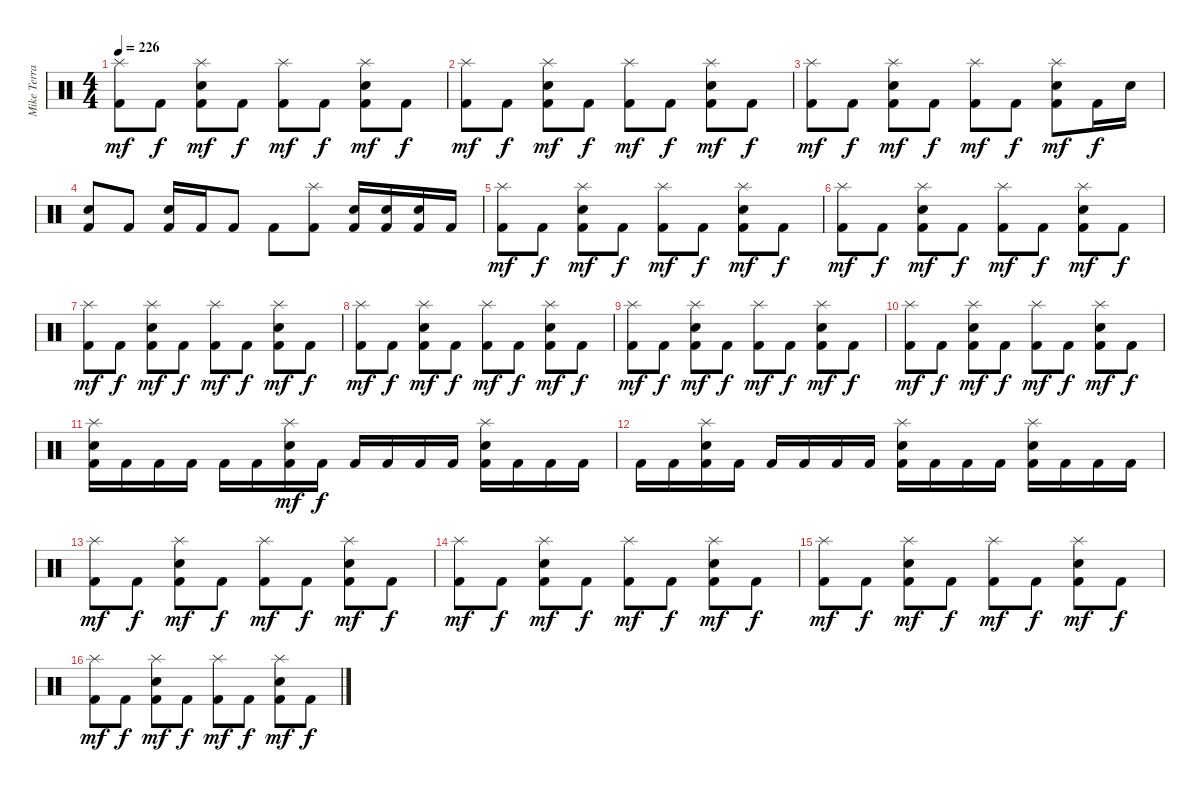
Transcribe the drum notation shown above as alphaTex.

\track ("Mike Terrana" "Mike Terra") {instrument percussion}
\staff {score}
\articulation defaults
\ts (4 4)
\tempo 226
\clef neutral
\ks c
("Splash (hit)" "Kick (hit) 2").8{dy mf} "Kick (hit) 2".8{dy f} ("Splash (hit)" "Snare (hit) 2" "Kick (hit) 2").8{dy mf} "Kick (hit) 2".8{dy f} ("Splash (hit)" "Kick (hit) 2").8{dy mf} "Kick (hit) 2".8{dy f} ("Splash (hit)" "Snare (hit) 2" "Kick (hit) 2").8{dy mf} "Kick (hit) 2".8{dy f} |
("Splash (hit)" "Kick (hit) 2").8{dy mf} "Kick (hit) 2".8{dy f} ("Splash (hit)" "Snare (hit) 2" "Kick (hit) 2").8{dy mf} "Kick (hit) 2".8{dy f} ("Splash (hit)" "Kick (hit) 2").8{dy mf} "Kick (hit) 2".8{dy f} ("Splash (hit)" "Snare (hit) 2" "Kick (hit) 2").8{dy mf} "Kick (hit) 2".8{dy f} |
("Splash (hit)" "Kick (hit) 2").8{dy mf} "Kick (hit) 2".8{dy f} ("Splash (hit)" "Snare (hit) 2" "Kick (hit) 2").8{dy mf} "Kick (hit) 2".8{dy f} ("Splash (hit)" "Kick (hit) 2").8{dy mf} "Kick (hit) 2".8{dy f} ("Splash (hit)" "Snare (hit) 2" "Kick (hit) 2").8{dy mf} "Kick (hit) 2".16{dy f} "Snare (hit) 2".16 |
("Snare (hit) 2" "Kick (hit) 2").8 "Kick (hit) 2".8 ("Snare (hit) 2" "Kick (hit) 2").16 "Kick (hit) 2".16 "Kick (hit) 2".8 "Kick (hit) 2".8 ("Splash (hit)" "Kick (hit) 2").8 ("Snare (hit) 2" "Kick (hit) 2").16 ("Snare (hit) 2" "Kick (hit) 2").16 ("Snare (hit) 2" "Kick (hit) 2").16 "Kick (hit) 2".16 |
("Splash (hit)" "Kick (hit) 2").8{dy mf} "Kick (hit) 2".8{dy f} ("Splash (hit)" "Snare (hit) 2" "Kick (hit) 2").8{dy mf} "Kick (hit) 2".8{dy f} ("Splash (hit)" "Kick (hit) 2").8{dy mf} "Kick (hit) 2".8{dy f} ("Splash (hit)" "Snare (hit) 2" "Kick (hit) 2").8{dy mf} "Kick (hit) 2".8{dy f} |
("Splash (hit)" "Kick (hit) 2").8{dy mf} "Kick (hit) 2".8{dy f} ("Splash (hit)" "Snare (hit) 2" "Kick (hit) 2").8{dy mf} "Kick (hit) 2".8{dy f} ("Splash (hit)" "Kick (hit) 2").8{dy mf} "Kick (hit) 2".8{dy f} ("Splash (hit)" "Snare (hit) 2" "Kick (hit) 2").8{dy mf} "Kick (hit) 2".8{dy f} |
("Splash (hit)" "Kick (hit) 2").8{dy mf} "Kick (hit) 2".8{dy f} ("Splash (hit)" "Snare (hit) 2" "Kick (hit) 2").8{dy mf} "Kick (hit) 2".8{dy f} ("Splash (hit)" "Kick (hit) 2").8{dy mf} "Kick (hit) 2".8{dy f} ("Splash (hit)" "Snare (hit) 2" "Kick (hit) 2").8{dy mf} "Kick (hit) 2".8{dy f} |
("Splash (hit)" "Kick (hit) 2").8{dy mf} "Kick (hit) 2".8{dy f} ("Splash (hit)" "Snare (hit) 2" "Kick (hit) 2").8{dy mf} "Kick (hit) 2".8{dy f} ("Splash (hit)" "Kick (hit) 2").8{dy mf} "Kick (hit) 2".8{dy f} ("Splash (hit)" "Snare (hit) 2" "Kick (hit) 2").8{dy mf} "Kick (hit) 2".8{dy f} |
("Splash (hit)" "Kick (hit) 2").8{dy mf} "Kick (hit) 2".8{dy f} ("Splash (hit)" "Snare (hit) 2" "Kick (hit) 2").8{dy mf} "Kick (hit) 2".8{dy f} ("Splash (hit)" "Kick (hit) 2").8{dy mf} "Kick (hit) 2".8{dy f} ("Splash (hit)" "Snare (hit) 2" "Kick (hit) 2").8{dy mf} "Kick (hit) 2".8{dy f} |
("Splash (hit)" "Kick (hit) 2").8{dy mf} "Kick (hit) 2".8{dy f} ("Splash (hit)" "Snare (hit) 2" "Kick (hit) 2").8{dy mf} "Kick (hit) 2".8{dy f} ("Splash (hit)" "Kick (hit) 2").8{dy mf} "Kick (hit) 2".8{dy f} ("Splash (hit)" "Snare (hit) 2" "Kick (hit) 2").8{dy mf} "Kick (hit) 2".8{dy f} |
("Splash (hit)" "Snare (hit) 2" "Kick (hit) 2").16 "Kick (hit) 2".16 "Kick (hit) 2".16 "Kick (hit) 2".16 "Kick (hit) 2".16 "Kick (hit) 2".16 ("Splash (hit)" "Snare (hit) 2" "Kick (hit) 2").16{dy mf} "Kick (hit) 2".16{dy f} "Kick (hit) 2".16 "Kick (hit) 2".16 "Kick (hit) 2".16 "Kick (hit) 2".16 ("Splash (hit)" "Snare (hit) 2" "Kick (hit) 2").16 "Kick (hit) 2".16 "Kick (hit) 2".16 "Kick (hit) 2".16 |
"Kick (hit) 2".16 "Kick (hit) 2".16 ("Splash (hit)" "Snare (hit) 2" "Kick (hit) 2").16 "Kick (hit) 2".16 "Kick (hit) 2".16 "Kick (hit) 2".16 "Kick (hit) 2".16 "Kick (hit) 2".16 ("Splash (hit)" "Snare (hit) 2" "Kick (hit) 2").16 "Kick (hit) 2".16 "Kick (hit) 2".16 "Kick (hit) 2".16 ("Splash (hit)" "Snare (hit) 2" "Kick (hit) 2").16 "Kick (hit) 2".16 "Kick (hit) 2".16 "Kick (hit) 2".16 |
("Splash (hit)" "Kick (hit) 2").8{dy mf} "Kick (hit) 2".8{dy f} ("Splash (hit)" "Snare (hit) 2" "Kick (hit) 2").8{dy mf} "Kick (hit) 2".8{dy f} ("Splash (hit)" "Kick (hit) 2").8{dy mf} "Kick (hit) 2".8{dy f} ("Splash (hit)" "Snare (hit) 2" "Kick (hit) 2").8{dy mf} "Kick (hit) 2".8{dy f} |
("Splash (hit)" "Kick (hit) 2").8{dy mf} "Kick (hit) 2".8{dy f} ("Splash (hit)" "Snare (hit) 2" "Kick (hit) 2").8{dy mf} "Kick (hit) 2".8{dy f} ("Splash (hit)" "Kick (hit) 2").8{dy mf} "Kick (hit) 2".8{dy f} ("Splash (hit)" "Snare (hit) 2" "Kick (hit) 2").8{dy mf} "Kick (hit) 2".8{dy f} |
("Splash (hit)" "Kick (hit) 2").8{dy mf} "Kick (hit) 2".8{dy f} ("Splash (hit)" "Snare (hit) 2" "Kick (hit) 2").8{dy mf} "Kick (hit) 2".8{dy f} ("Splash (hit)" "Kick (hit) 2").8{dy mf} "Kick (hit) 2".8{dy f} ("Splash (hit)" "Snare (hit) 2" "Kick (hit) 2").8{dy mf} "Kick (hit) 2".8{dy f} |
("Splash (hit)" "Kick (hit) 2").8{dy mf} "Kick (hit) 2".8{dy f} ("Splash (hit)" "Snare (hit) 2" "Kick (hit) 2").8{dy mf} "Kick (hit) 2".8{dy f} ("Splash (hit)" "Kick (hit) 2").8{dy mf} "Kick (hit) 2".8{dy f} ("Splash (hit)" "Snare (hit) 2" "Kick (hit) 2").8{dy mf} "Kick (hit) 2".8{dy f}
